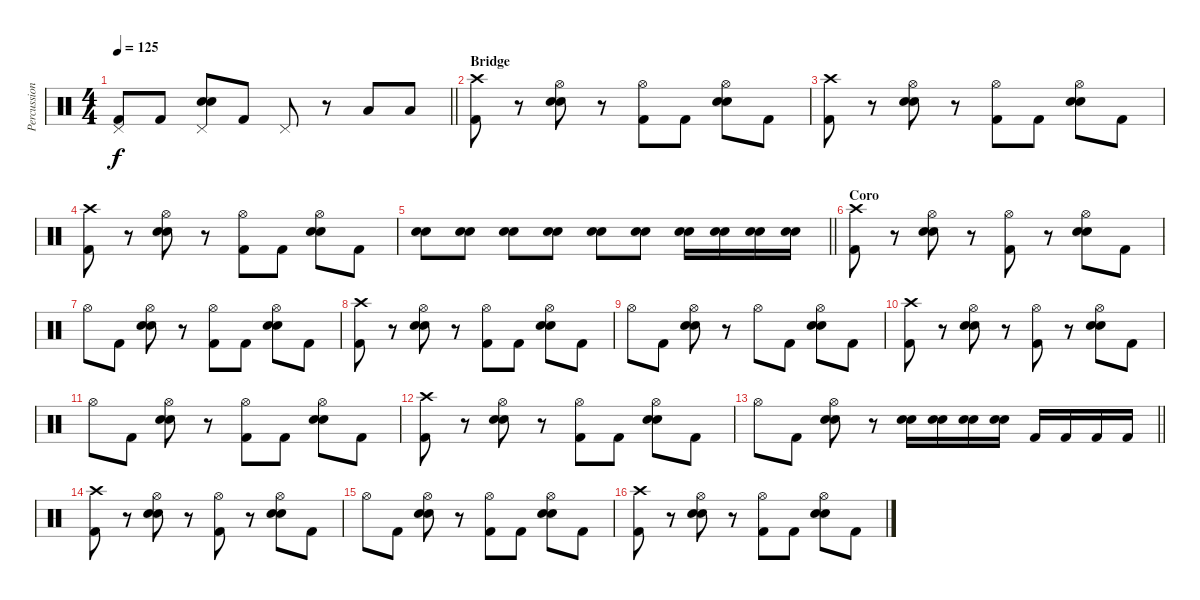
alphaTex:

\track ("Percussion" "Percussion") {instrument percussion}
\staff {score}
\articulation defaults
\ts (4 4)
\tempo 125
\clef neutral
\barLineRight lightlight
\ks c
("Pedal Hi-Hat (hit)" "Kick (hit) 2").8{dy f} "Kick (hit) 2".8 ("Pedal Hi-Hat (hit)" "Snare (hit) 2" "Electric Snare (hit)").8 "Kick (hit) 2".8 "Pedal Hi-Hat (hit)".8 r.8 "Low Tom (hit)".8 "Low Tom (hit)".8 |
\section ("" "Bridge")
("Crash high (hit)" "Kick (hit) 2").8 r.8 ("Hi-Hat (open)" "Snare (hit) 2" "Electric Snare (hit)").8 r.8 ("Hi-Hat (open)" "Kick (hit) 2").8 "Kick (hit) 2".8 ("Hi-Hat (open)" "Snare (hit) 2" "Electric Snare (hit)").8 "Kick (hit) 2".8 |
("Crash high (hit)" "Kick (hit) 2").8 r.8 ("Hi-Hat (open)" "Snare (hit) 2" "Electric Snare (hit)").8 r.8 ("Hi-Hat (open)" "Kick (hit) 2").8 "Kick (hit) 2".8 ("Hi-Hat (open)" "Snare (hit) 2" "Electric Snare (hit)").8 "Kick (hit) 2".8 |
("Crash high (hit)" "Kick (hit) 2").8 r.8 ("Hi-Hat (open)" "Snare (hit) 2" "Electric Snare (hit)").8 r.8 ("Hi-Hat (open)" "Kick (hit) 2").8 "Kick (hit) 2".8 ("Hi-Hat (open)" "Snare (hit) 2" "Electric Snare (hit)").8 "Kick (hit) 2".8 |
\barLineRight lightlight
("Snare (hit) 2" "Electric Snare (hit)").8 ("Snare (hit) 2" "Electric Snare (hit)").8 ("Snare (hit) 2" "Electric Snare (hit)").8 ("Snare (hit) 2" "Electric Snare (hit)").8 ("Snare (hit) 2" "Electric Snare (hit)").8 ("Snare (hit) 2" "Electric Snare (hit)").8 ("Snare (hit) 2" "Electric Snare (hit)").16 ("Snare (hit) 2" "Electric Snare (hit)").16 ("Snare (hit) 2" "Electric Snare (hit)").16 ("Snare (hit) 2" "Electric Snare (hit)").16 |
\section ("" "Coro")
("Crash high (hit)" "Kick (hit) 2").8 r.8 ("Hi-Hat (open)" "Snare (hit) 2" "Electric Snare (hit)").8 r.8 ("Hi-Hat (open)" "Kick (hit) 2").8 r.8 ("Hi-Hat (open)" "Snare (hit) 2" "Electric Snare (hit)").8 "Kick (hit) 2".8 |
"Hi-Hat (open)".8 "Kick (hit) 2".8 ("Hi-Hat (open)" "Snare (hit) 2" "Electric Snare (hit)").8 r.8 ("Hi-Hat (open)" "Kick (hit) 2").8 "Kick (hit) 2".8 ("Hi-Hat (open)" "Snare (hit) 2" "Electric Snare (hit)").8 "Kick (hit) 2".8 |
("Crash high (hit)" "Kick (hit) 2").8 r.8 ("Hi-Hat (open)" "Snare (hit) 2" "Electric Snare (hit)").8 r.8 ("Hi-Hat (open)" "Kick (hit) 2").8 "Kick (hit) 2".8 ("Hi-Hat (open)" "Snare (hit) 2" "Electric Snare (hit)").8 "Kick (hit) 2".8 |
"Hi-Hat (open)".8 "Kick (hit) 2".8 ("Hi-Hat (open)" "Snare (hit) 2" "Electric Snare (hit)").8 r.8 "Hi-Hat (open)".8 "Kick (hit) 2".8 ("Hi-Hat (open)" "Snare (hit) 2" "Electric Snare (hit)").8 "Kick (hit) 2".8 |
("Crash high (hit)" "Kick (hit) 2").8 r.8 ("Hi-Hat (open)" "Snare (hit) 2" "Electric Snare (hit)").8 r.8 ("Hi-Hat (open)" "Kick (hit) 2").8 r.8 ("Hi-Hat (open)" "Snare (hit) 2" "Electric Snare (hit)").8 "Kick (hit) 2".8 |
"Hi-Hat (open)".8 "Kick (hit) 2".8 ("Hi-Hat (open)" "Snare (hit) 2" "Electric Snare (hit)").8 r.8 ("Hi-Hat (open)" "Kick (hit) 2").8 "Kick (hit) 2".8 ("Hi-Hat (open)" "Snare (hit) 2" "Electric Snare (hit)").8 "Kick (hit) 2".8 |
("Crash high (hit)" "Kick (hit) 2").8 r.8 ("Hi-Hat (open)" "Snare (hit) 2" "Electric Snare (hit)").8 r.8 ("Hi-Hat (open)" "Kick (hit) 2").8 "Kick (hit) 2".8 ("Hi-Hat (open)" "Snare (hit) 2" "Electric Snare (hit)").8 "Kick (hit) 2".8 |
\barLineRight lightlight "Hi-Hat (open)".8 "Kick (hit) 2".8
("Hi-Hat (open)" "Snare (hit) 2" "Electric Snare (hit)").8 r.8 ("Snare (hit) 2" "Electric Snare (hit)").16 ("Snare (hit) 2" "Electric Snare (hit)").16 ("Snare (hit) 2" "Electric Snare (hit)").16 ("Snare (hit) 2" "Electric Snare (hit)").16 "Kick (hit) 2".16 "Kick (hit) 2".16 "Kick (hit) 2".16 "Kick (hit) 2".16 |
("Crash high (hit)" "Kick (hit) 2").8 r.8 ("Hi-Hat (open)" "Snare (hit) 2" "Electric Snare (hit)").8 r.8 ("Hi-Hat (open)" "Kick (hit) 2").8 r.8 ("Hi-Hat (open)" "Snare (hit) 2" "Electric Snare (hit)").8 "Kick (hit) 2".8 |
"Hi-Hat (open)".8 "Kick (hit) 2".8 ("Hi-Hat (open)" "Snare (hit) 2" "Electric Snare (hit)").8 r.8 ("Hi-Hat (open)" "Kick (hit) 2").8 "Kick (hit) 2".8 ("Hi-Hat (open)" "Snare (hit) 2" "Electric Snare (hit)").8 "Kick (hit) 2".8 |
("Crash high (hit)" "Kick (hit) 2").8 r.8 ("Hi-Hat (open)" "Snare (hit) 2" "Electric Snare (hit)").8 r.8 ("Hi-Hat (open)" "Kick (hit) 2").8 "Kick (hit) 2".8 ("Hi-Hat (open)" "Snare (hit) 2" "Electric Snare (hit)").8 "Kick (hit) 2".8
